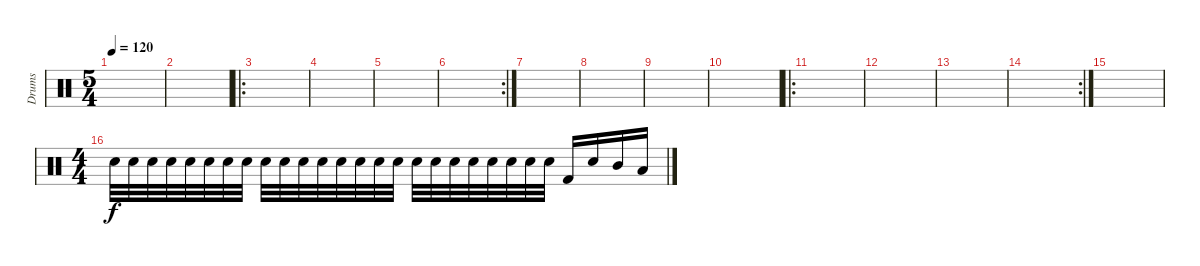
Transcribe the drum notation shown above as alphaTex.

\track ("Drums" "Drums") {instrument percussion}
\staff {score}
\articulation defaults
\ts (5 4)
\tempo 120
\clef neutral
\ks c
|
|
\ro
|
|
|
\rc 2
|
|
|
|
|
\ro
|
|
|
\rc 2
|
|
\ts (4 4)
"Snare (hit) 2".32 "Snare (hit) 2".32{volume 8} "Snare (hit) 2".32 "Snare (hit) 2".32{volume 9} "Snare (hit) 2".32 "Snare (hit) 2".32{volume 10} "Snare (hit) 2".32 "Snare (hit) 2".32{volume 11} "Snare (hit) 2".32 "Snare (hit) 2".32{volume 12} "Snare (hit) 2".32 "Snare (hit) 2".32{volume 13} "Snare (hit) 2".32 "Snare (hit) 2".32{volume 14} "Snare (hit) 2".32 "Snare (hit) 2".32{volume 15} "Snare (hit) 2".32 "Snare (hit) 2".32{volume 16} "Snare (hit) 2".32 "Snare (hit) 2".32 "Snare (hit) 2".32 "Snare (hit) 2".32 "Snare (hit) 2".32 "Snare (hit) 2".32 "Kick (hit) 2".16 "Electric Snare (hit)".16 "Mid Tom (hit)".16 "Low Tom (hit)".16
